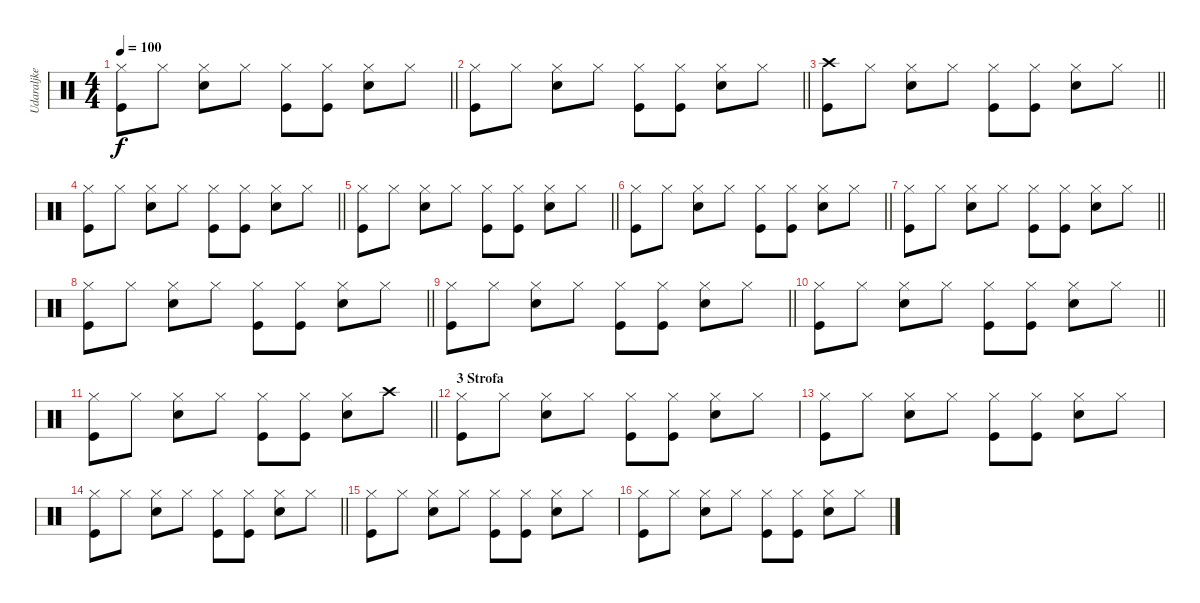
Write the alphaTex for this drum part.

\track ("Udaraljke" "Udaraljke") {instrument percussion}
\staff {score}
\articulation defaults
\ts (4 4)
\tempo 100
\clef neutral
\barLineRight lightlight
\ks c
("Hi-Hat (closed)" "Kick (hit)").8{dy f} "Hi-Hat (closed)".8 ("Hi-Hat (closed)" "Snare (hit) 2").8 "Hi-Hat (closed)".8 ("Hi-Hat (closed)" "Kick (hit)").8 ("Hi-Hat (closed)" "Kick (hit)").8 ("Hi-Hat (closed)" "Snare (hit) 2").8 "Hi-Hat (closed)".8 |
\barLineRight lightlight
("Hi-Hat (closed)" "Kick (hit)").8 "Hi-Hat (closed)".8 ("Hi-Hat (closed)" "Snare (hit) 2").8 "Hi-Hat (closed)".8 ("Hi-Hat (closed)" "Kick (hit)").8 ("Hi-Hat (closed)" "Kick (hit)").8 ("Hi-Hat (closed)" "Snare (hit) 2").8 "Hi-Hat (closed)".8 |
\barLineRight lightlight
("Crash high (hit)" "Kick (hit)").8 "Hi-Hat (closed)".8 ("Hi-Hat (closed)" "Snare (hit) 2").8 "Hi-Hat (closed)".8 ("Hi-Hat (closed)" "Kick (hit)").8 ("Hi-Hat (closed)" "Kick (hit)").8 ("Hi-Hat (closed)" "Snare (hit) 2").8 "Hi-Hat (closed)".8 |
\barLineRight lightlight
("Hi-Hat (closed)" "Kick (hit)").8 "Hi-Hat (closed)".8 ("Hi-Hat (closed)" "Snare (hit) 2").8 "Hi-Hat (closed)".8 ("Hi-Hat (closed)" "Kick (hit)").8 ("Hi-Hat (closed)" "Kick (hit)").8 ("Hi-Hat (closed)" "Snare (hit) 2").8 "Hi-Hat (closed)".8 |
\barLineRight lightlight
("Hi-Hat (closed)" "Kick (hit)").8 "Hi-Hat (closed)".8 ("Hi-Hat (closed)" "Snare (hit) 2").8 "Hi-Hat (closed)".8 ("Hi-Hat (closed)" "Kick (hit)").8 ("Hi-Hat (closed)" "Kick (hit)").8 ("Hi-Hat (closed)" "Snare (hit) 2").8 "Hi-Hat (closed)".8 |
\barLineRight lightlight
("Hi-Hat (closed)" "Kick (hit)").8 "Hi-Hat (closed)".8 ("Hi-Hat (closed)" "Snare (hit) 2").8 "Hi-Hat (closed)".8 ("Hi-Hat (closed)" "Kick (hit)").8 ("Hi-Hat (closed)" "Kick (hit)").8 ("Hi-Hat (closed)" "Snare (hit) 2").8 "Hi-Hat (closed)".8 |
\barLineRight lightlight
("Hi-Hat (closed)" "Kick (hit)").8 "Hi-Hat (closed)".8 ("Hi-Hat (closed)" "Snare (hit) 2").8 "Hi-Hat (closed)".8 ("Hi-Hat (closed)" "Kick (hit)").8 ("Hi-Hat (closed)" "Kick (hit)").8 ("Hi-Hat (closed)" "Snare (hit) 2").8 "Hi-Hat (closed)".8 |
\barLineRight lightlight
("Hi-Hat (closed)" "Kick (hit)").8 "Hi-Hat (closed)".8 ("Hi-Hat (closed)" "Snare (hit) 2").8 "Hi-Hat (closed)".8 ("Hi-Hat (closed)" "Kick (hit)").8 ("Hi-Hat (closed)" "Kick (hit)").8 ("Hi-Hat (closed)" "Snare (hit) 2").8 "Hi-Hat (closed)".8 |
\barLineRight lightlight
("Hi-Hat (closed)" "Kick (hit)").8 "Hi-Hat (closed)".8 ("Hi-Hat (closed)" "Snare (hit) 2").8 "Hi-Hat (closed)".8 ("Hi-Hat (closed)" "Kick (hit)").8 ("Hi-Hat (closed)" "Kick (hit)").8 ("Hi-Hat (closed)" "Snare (hit) 2").8 "Hi-Hat (closed)".8 |
\barLineRight lightlight
("Hi-Hat (closed)" "Kick (hit)").8 "Hi-Hat (closed)".8 ("Hi-Hat (closed)" "Snare (hit) 2").8 "Hi-Hat (closed)".8 ("Hi-Hat (closed)" "Kick (hit)").8 ("Hi-Hat (closed)" "Kick (hit)").8 ("Hi-Hat (closed)" "Snare (hit) 2").8 "Hi-Hat (closed)".8 |
\barLineRight lightlight
("Hi-Hat (closed)" "Kick (hit)").8 "Hi-Hat (closed)".8 ("Hi-Hat (closed)" "Snare (hit) 2").8 "Hi-Hat (closed)".8 ("Hi-Hat (closed)" "Kick (hit)").8 ("Hi-Hat (closed)" "Kick (hit)").8 ("Hi-Hat (closed)" "Snare (hit) 2").8 "Crash high (hit)".8 |
\section ("" "3 Strofa")
("Hi-Hat (closed)" "Kick (hit)").8 "Hi-Hat (closed)".8 ("Hi-Hat (closed)" "Snare (hit) 2").8 "Hi-Hat (closed)".8 ("Hi-Hat (closed)" "Kick (hit)").8 ("Hi-Hat (closed)" "Kick (hit)").8 ("Hi-Hat (closed)" "Snare (hit) 2").8 "Hi-Hat (closed)".8 |
("Hi-Hat (closed)" "Kick (hit)").8 "Hi-Hat (closed)".8 ("Hi-Hat (closed)" "Snare (hit) 2").8 "Hi-Hat (closed)".8 ("Hi-Hat (closed)" "Kick (hit)").8 ("Hi-Hat (closed)" "Kick (hit)").8 ("Hi-Hat (closed)" "Snare (hit) 2").8 "Hi-Hat (closed)".8 |
\barLineRight lightlight
("Hi-Hat (closed)" "Kick (hit)").8 "Hi-Hat (closed)".8 ("Hi-Hat (closed)" "Snare (hit) 2").8 "Hi-Hat (closed)".8 ("Hi-Hat (closed)" "Kick (hit)").8 ("Hi-Hat (closed)" "Kick (hit)").8 ("Hi-Hat (closed)" "Snare (hit) 2").8 "Hi-Hat (closed)".8 |
("Hi-Hat (closed)" "Kick (hit)").8 "Hi-Hat (closed)".8 ("Hi-Hat (closed)" "Snare (hit) 2").8 "Hi-Hat (closed)".8 ("Hi-Hat (closed)" "Kick (hit)").8 ("Hi-Hat (closed)" "Kick (hit)").8 ("Hi-Hat (closed)" "Snare (hit) 2").8 "Hi-Hat (closed)".8 |
("Hi-Hat (closed)" "Kick (hit)").8 "Hi-Hat (closed)".8 ("Hi-Hat (closed)" "Snare (hit) 2").8 "Hi-Hat (closed)".8 ("Hi-Hat (closed)" "Kick (hit)").8 ("Hi-Hat (closed)" "Kick (hit)").8 ("Hi-Hat (closed)" "Snare (hit) 2").8 "Hi-Hat (closed)".8
